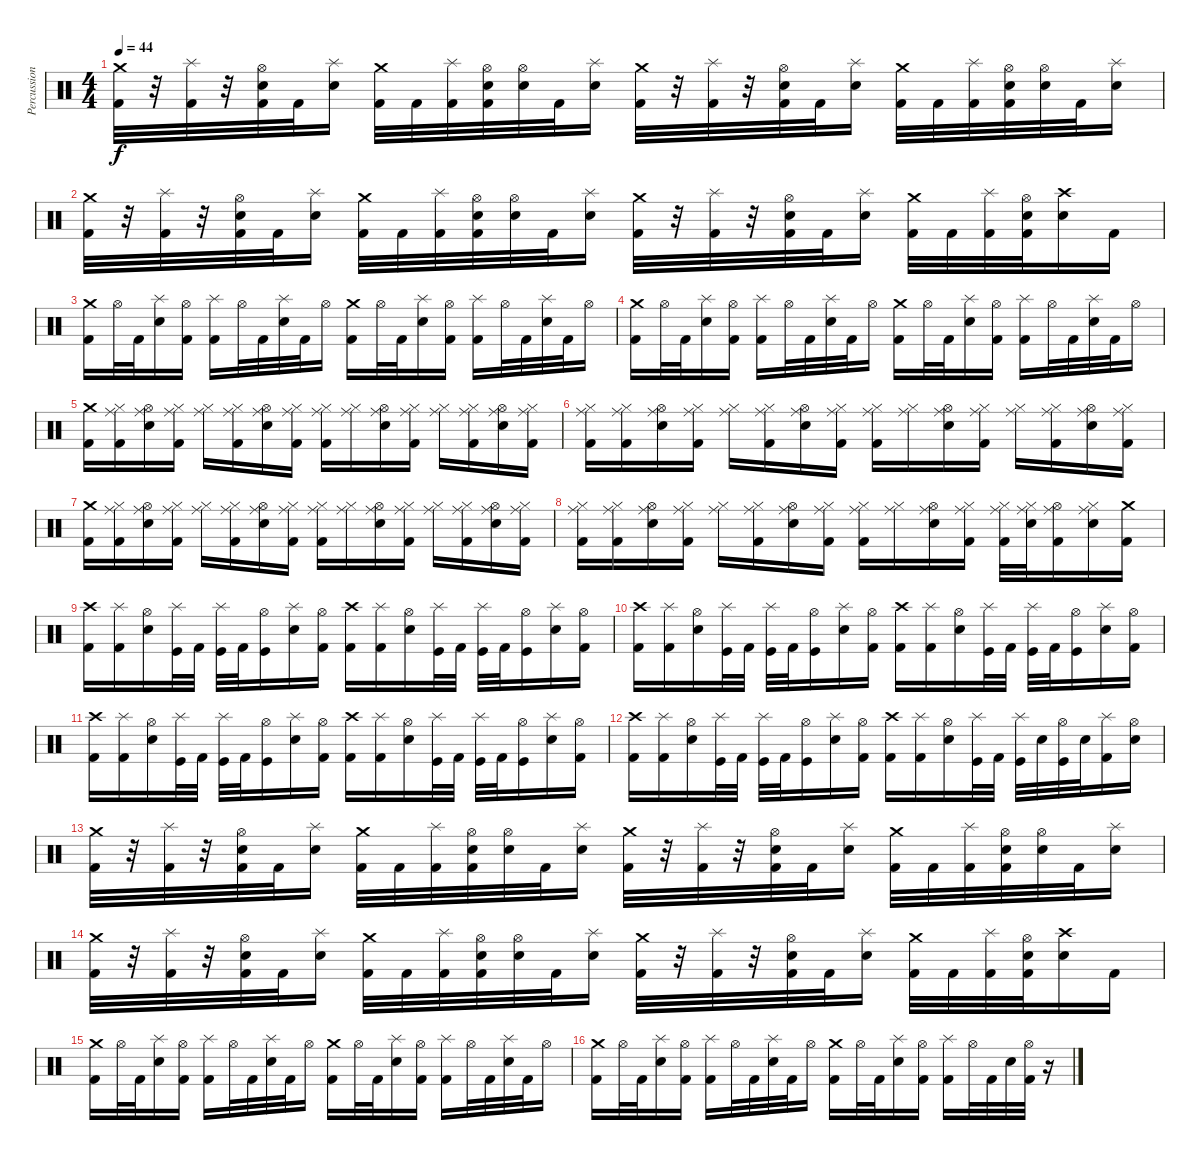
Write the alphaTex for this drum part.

\track ("Percussion" "Percussion") {instrument percussion}
\staff {score}
\articulation defaults
\ts (4 4)
\tempo 44
\clef neutral
\ks c
("Crash medium (hit)" "Kick (hit) 2").32{dy f} r.32 ("Splash (hit)" "Kick (hit) 2").32 r.32 ("Hi-Hat (open)" "Electric Snare (hit)" "Kick (hit) 2").32 "Kick (hit) 2".32 ("Splash (hit)" "Electric Snare (hit)").16 ("Crash medium (hit)" "Kick (hit) 2").32 "Kick (hit) 2".32 ("Splash (hit)" "Kick (hit) 2").32 ("Hi-Hat (open)" "Electric Snare (hit)" "Kick (hit) 2").32 ("Hi-Hat (open)" "Electric Snare (hit)").32 "Kick (hit) 2".32 ("Splash (hit)" "Electric Snare (hit)").16 ("Crash medium (hit)" "Kick (hit) 2").32 r.32 ("Splash (hit)" "Kick (hit) 2").32 r.32 ("Hi-Hat (open)" "Electric Snare (hit)" "Kick (hit) 2").32 "Kick (hit) 2".32 ("Splash (hit)" "Electric Snare (hit)").16 ("Crash medium (hit)" "Kick (hit) 2").32 "Kick (hit) 2".32 ("Splash (hit)" "Kick (hit) 2").32 ("Hi-Hat (open)" "Electric Snare (hit)" "Kick (hit) 2").32 ("Hi-Hat (open)" "Electric Snare (hit)").32 "Kick (hit) 2".32 ("Splash (hit)" "Electric Snare (hit)").16 |
("Crash medium (hit)" "Kick (hit) 2").32 r.32 ("Splash (hit)" "Kick (hit) 2").32 r.32 ("Hi-Hat (open)" "Electric Snare (hit)" "Kick (hit) 2").32 "Kick (hit) 2".32 ("Splash (hit)" "Electric Snare (hit)").16 ("Crash medium (hit)" "Kick (hit) 2").32 "Kick (hit) 2".32 ("Splash (hit)" "Kick (hit) 2").32 ("Hi-Hat (open)" "Electric Snare (hit)" "Kick (hit) 2").32 ("Hi-Hat (open)" "Electric Snare (hit)").32 "Kick (hit) 2".32 ("Splash (hit)" "Electric Snare (hit)").16 ("Crash medium (hit)" "Kick (hit) 2").32 r.32 ("Splash (hit)" "Kick (hit) 2").32 r.32 ("Hi-Hat (open)" "Electric Snare (hit)" "Kick (hit) 2").32 "Kick (hit) 2".32 ("Splash (hit)" "Electric Snare (hit)").16 ("Crash medium (hit)" "Kick (hit) 2").32 "Kick (hit) 2".32 ("Splash (hit)" "Kick (hit) 2").32 ("Hi-Hat (open)" "Electric Snare (hit)" "Kick (hit) 2").32 ("Crash high (hit)" "Electric Snare (hit)").16 "Kick (hit) 2".16 |
("Crash medium (hit)" "Kick (hit) 2").16 "Hi-Hat (open)".32 "Kick (hit) 2".32 ("Splash (hit)" "Electric Snare (hit)").16 ("Hi-Hat (open)" "Kick (hit) 2").16 ("Splash (hit)" "Kick (hit) 2").16 "Hi-Hat (open)".32 "Kick (hit) 2".32 ("Splash (hit)" "Electric Snare (hit)").32 "Kick (hit) 2".32 "Hi-Hat (open)".16 ("Crash medium (hit)" "Kick (hit) 2").16 "Hi-Hat (open)".32 "Kick (hit) 2".32 ("Splash (hit)" "Electric Snare (hit)").16 ("Hi-Hat (open)" "Kick (hit) 2").16 ("Splash (hit)" "Kick (hit) 2").16 "Hi-Hat (open)".32 "Kick (hit) 2".32 ("Splash (hit)" "Electric Snare (hit)").32 "Kick (hit) 2".32 "Hi-Hat (open)".16 |
("Crash medium (hit)" "Kick (hit) 2").16 "Hi-Hat (open)".32 "Kick (hit) 2".32 ("Splash (hit)" "Electric Snare (hit)").16 ("Hi-Hat (open)" "Kick (hit) 2").16 ("Splash (hit)" "Kick (hit) 2").16 "Hi-Hat (open)".32 "Kick (hit) 2".32 ("Splash (hit)" "Electric Snare (hit)").32 "Kick (hit) 2".32 "Hi-Hat (open)".16 ("Crash medium (hit)" "Kick (hit) 2").16 "Hi-Hat (open)".32 "Kick (hit) 2".32 ("Splash (hit)" "Electric Snare (hit)").16 ("Hi-Hat (open)" "Kick (hit) 2").16 ("Splash (hit)" "Kick (hit) 2").16 "Hi-Hat (open)".32 "Kick (hit) 2".32 ("Splash (hit)" "Electric Snare (hit)").32 "Kick (hit) 2".32 "Hi-Hat (open)".16 |
("Crash medium (hit)" "Kick (hit) 2").16 ("Hi-Hat (closed)" "Ride (middle)" "Kick (hit) 2").16 ("Hi-Hat (open)" "Ride (middle)" "Electric Snare (hit)").16 ("Hi-Hat (closed)" "Ride (middle)" "Kick (hit) 2").16 ("Hi-Hat (closed)" "Ride (middle)").16 ("Hi-Hat (closed)" "Ride (middle)" "Kick (hit) 2").16 ("Hi-Hat (open)" "Ride (middle)" "Electric Snare (hit)").16 ("Hi-Hat (closed)" "Ride (middle)" "Kick (hit) 2").16 ("Hi-Hat (closed)" "Ride (middle)" "Kick (hit) 2").16 ("Hi-Hat (closed)" "Ride (middle)").16 ("Hi-Hat (open)" "Ride (middle)" "Electric Snare (hit)").16 ("Hi-Hat (closed)" "Ride (middle)" "Kick (hit) 2").16 ("Hi-Hat (closed)" "Ride (middle)").16 ("Hi-Hat (closed)" "Ride (middle)" "Kick (hit) 2").16 ("Hi-Hat (open)" "Ride (middle)" "Electric Snare (hit)").16 ("Hi-Hat (closed)" "Ride (middle)" "Kick (hit) 2").16 |
("Hi-Hat (closed)" "Ride (middle)" "Kick (hit) 2").16 ("Hi-Hat (closed)" "Ride (middle)" "Kick (hit) 2").16 ("Hi-Hat (open)" "Ride (middle)" "Electric Snare (hit)").16 ("Hi-Hat (closed)" "Ride (middle)" "Kick (hit) 2").16 ("Hi-Hat (closed)" "Ride (middle)").16 ("Hi-Hat (closed)" "Ride (middle)" "Kick (hit) 2").16 ("Hi-Hat (open)" "Ride (middle)" "Electric Snare (hit)").16 ("Hi-Hat (closed)" "Ride (middle)" "Kick (hit) 2").16 ("Hi-Hat (closed)" "Ride (middle)" "Kick (hit) 2").16 ("Hi-Hat (closed)" "Ride (middle)").16 ("Hi-Hat (open)" "Ride (middle)" "Electric Snare (hit)").16 ("Hi-Hat (closed)" "Ride (middle)" "Kick (hit) 2").16 ("Hi-Hat (closed)" "Ride (middle)").16 ("Hi-Hat (closed)" "Ride (middle)" "Kick (hit) 2").16 ("Hi-Hat (open)" "Ride (middle)" "Electric Snare (hit)").16 ("Hi-Hat (closed)" "Ride (middle)" "Kick (hit) 2").16 |
("Crash medium (hit)" "Kick (hit) 2").16 ("Hi-Hat (closed)" "Ride (middle)" "Kick (hit) 2").16 ("Hi-Hat (open)" "Ride (middle)" "Electric Snare (hit)").16 ("Hi-Hat (closed)" "Ride (middle)" "Kick (hit) 2").16 ("Hi-Hat (closed)" "Ride (middle)").16 ("Hi-Hat (closed)" "Ride (middle)" "Kick (hit) 2").16 ("Hi-Hat (open)" "Ride (middle)" "Electric Snare (hit)").16 ("Hi-Hat (closed)" "Ride (middle)" "Kick (hit) 2").16 ("Hi-Hat (closed)" "Ride (middle)" "Kick (hit) 2").16 ("Hi-Hat (closed)" "Ride (middle)").16 ("Hi-Hat (open)" "Ride (middle)" "Electric Snare (hit)").16 ("Hi-Hat (closed)" "Ride (middle)" "Kick (hit) 2").16 ("Hi-Hat (closed)" "Ride (middle)").16 ("Hi-Hat (closed)" "Ride (middle)" "Kick (hit) 2").16 ("Hi-Hat (open)" "Ride (middle)" "Electric Snare (hit)").16 ("Hi-Hat (closed)" "Ride (middle)" "Kick (hit) 2").16 |
("Hi-Hat (closed)" "Ride (middle)" "Kick (hit) 2").16 ("Hi-Hat (closed)" "Ride (middle)" "Kick (hit) 2").16 ("Hi-Hat (open)" "Ride (middle)" "Electric Snare (hit)").16 ("Hi-Hat (closed)" "Ride (middle)" "Kick (hit) 2").16 ("Hi-Hat (closed)" "Ride (middle)").16 ("Hi-Hat (closed)" "Ride (middle)" "Kick (hit) 2").16 ("Hi-Hat (open)" "Ride (middle)" "Electric Snare (hit)").16 ("Hi-Hat (closed)" "Ride (middle)" "Kick (hit) 2").16 ("Hi-Hat (closed)" "Ride (middle)" "Kick (hit) 2").16 ("Hi-Hat (closed)" "Ride (middle)").16 ("Hi-Hat (open)" "Ride (middle)" "Electric Snare (hit)").16 ("Hi-Hat (closed)" "Ride (middle)" "Kick (hit) 2").16 ("Hi-Hat (closed)" "Ride (middle)" "Kick (hit) 2").32 ("Hi-Hat (closed)" "Ride (middle)" "Electric Snare (hit)").32 ("Hi-Hat (open)" "Ride (middle)" "Kick (hit) 2").16 ("Hi-Hat (closed)" "Ride (middle)" "Electric Snare (hit)").16 ("Crash medium (hit)" "Kick (hit) 2").16 |
("Crash high (hit)" "Kick (hit) 2").16 ("Splash (hit)" "Kick (hit) 2").16 ("Hi-Hat (open)" "Electric Snare (hit)").16 ("Splash (hit)" "Kick (hit)").32 "Kick (hit) 2".32 ("Splash (hit)" "Kick (hit)").32 "Kick (hit) 2".32 ("Hi-Hat (open)" "Kick (hit)").16 ("Splash (hit)" "Electric Snare (hit)").16 ("Hi-Hat (open)" "Kick (hit) 2").16 ("Crash high (hit)" "Kick (hit) 2").16 ("Splash (hit)" "Kick (hit) 2").16 ("Hi-Hat (open)" "Electric Snare (hit)").16 ("Splash (hit)" "Kick (hit)").32 "Kick (hit) 2".32 ("Splash (hit)" "Kick (hit)").32 "Kick (hit) 2".32 ("Hi-Hat (open)" "Kick (hit)").16 ("Splash (hit)" "Electric Snare (hit)").16 ("Hi-Hat (open)" "Kick (hit) 2").16 |
("Crash high (hit)" "Kick (hit) 2").16 ("Splash (hit)" "Kick (hit) 2").16 ("Hi-Hat (open)" "Electric Snare (hit)").16 ("Splash (hit)" "Kick (hit)").32 "Kick (hit) 2".32 ("Splash (hit)" "Kick (hit)").32 "Kick (hit) 2".32 ("Hi-Hat (open)" "Kick (hit)").16 ("Splash (hit)" "Electric Snare (hit)").16 ("Hi-Hat (open)" "Kick (hit) 2").16 ("Crash high (hit)" "Kick (hit) 2").16 ("Splash (hit)" "Kick (hit) 2").16 ("Hi-Hat (open)" "Electric Snare (hit)").16 ("Splash (hit)" "Kick (hit)").32 "Kick (hit) 2".32 ("Splash (hit)" "Kick (hit)").32 "Kick (hit) 2".32 ("Hi-Hat (open)" "Kick (hit)").16 ("Splash (hit)" "Electric Snare (hit)").16 ("Hi-Hat (open)" "Kick (hit) 2").16 |
("Crash high (hit)" "Kick (hit) 2").16 ("Splash (hit)" "Kick (hit) 2").16 ("Hi-Hat (open)" "Electric Snare (hit)").16 ("Splash (hit)" "Kick (hit)").32 "Kick (hit) 2".32 ("Splash (hit)" "Kick (hit)").32 "Kick (hit) 2".32 ("Hi-Hat (open)" "Kick (hit)").16 ("Splash (hit)" "Electric Snare (hit)").16 ("Hi-Hat (open)" "Kick (hit) 2").16 ("Crash high (hit)" "Kick (hit) 2").16 ("Splash (hit)" "Kick (hit) 2").16 ("Hi-Hat (open)" "Electric Snare (hit)").16 ("Splash (hit)" "Kick (hit)").32 "Kick (hit) 2".32 ("Splash (hit)" "Kick (hit)").32 "Kick (hit) 2".32 ("Hi-Hat (open)" "Kick (hit)").16 ("Splash (hit)" "Electric Snare (hit)").16 ("Hi-Hat (open)" "Kick (hit) 2").16 |
("Crash high (hit)" "Kick (hit) 2").16 ("Splash (hit)" "Kick (hit) 2").16 ("Hi-Hat (open)" "Electric Snare (hit)").16 ("Splash (hit)" "Kick (hit)").32 "Kick (hit) 2".32 ("Splash (hit)" "Kick (hit)").32 "Kick (hit) 2".32 ("Hi-Hat (open)" "Kick (hit)").16 ("Splash (hit)" "Electric Snare (hit)").16 ("Hi-Hat (open)" "Kick (hit) 2").16 ("Crash high (hit)" "Kick (hit) 2").16 ("Splash (hit)" "Kick (hit) 2").16 ("Hi-Hat (open)" "Electric Snare (hit)").16 ("Splash (hit)" "Kick (hit)").32 "Kick (hit) 2".32 ("Splash (hit)" "Kick (hit)").32 "Electric Snare (hit)".32 ("Hi-Hat (open)" "Kick (hit)").32 "Electric Snare (hit)".32 ("Splash (hit)" "Kick (hit) 2").16 ("Hi-Hat (open)" "Electric Snare (hit)").16 |
("Crash medium (hit)" "Kick (hit) 2").32 r.32 ("Splash (hit)" "Kick (hit) 2").32 r.32 ("Hi-Hat (open)" "Electric Snare (hit)" "Kick (hit) 2").32 "Kick (hit) 2".32 ("Splash (hit)" "Electric Snare (hit)").16 ("Crash medium (hit)" "Kick (hit) 2").32 "Kick (hit) 2".32 ("Splash (hit)" "Kick (hit) 2").32 ("Hi-Hat (open)" "Electric Snare (hit)" "Kick (hit) 2").32 ("Hi-Hat (open)" "Electric Snare (hit)").32 "Kick (hit) 2".32 ("Splash (hit)" "Electric Snare (hit)").16 ("Crash medium (hit)" "Kick (hit) 2").32 r.32 ("Splash (hit)" "Kick (hit) 2").32 r.32 ("Hi-Hat (open)" "Electric Snare (hit)" "Kick (hit) 2").32 "Kick (hit) 2".32 ("Splash (hit)" "Electric Snare (hit)").16 ("Crash medium (hit)" "Kick (hit) 2").32 "Kick (hit) 2".32 ("Splash (hit)" "Kick (hit) 2").32 ("Hi-Hat (open)" "Electric Snare (hit)" "Kick (hit) 2").32 ("Hi-Hat (open)" "Electric Snare (hit)").32 "Kick (hit) 2".32 ("Splash (hit)" "Electric Snare (hit)").16 |
("Crash medium (hit)" "Kick (hit) 2").32 r.32 ("Splash (hit)" "Kick (hit) 2").32 r.32 ("Hi-Hat (open)" "Electric Snare (hit)" "Kick (hit) 2").32 "Kick (hit) 2".32 ("Splash (hit)" "Electric Snare (hit)").16 ("Crash medium (hit)" "Kick (hit) 2").32 "Kick (hit) 2".32 ("Splash (hit)" "Kick (hit) 2").32 ("Hi-Hat (open)" "Electric Snare (hit)" "Kick (hit) 2").32 ("Hi-Hat (open)" "Electric Snare (hit)").32 "Kick (hit) 2".32 ("Splash (hit)" "Electric Snare (hit)").16 ("Crash medium (hit)" "Kick (hit) 2").32 r.32 ("Splash (hit)" "Kick (hit) 2").32 r.32 ("Hi-Hat (open)" "Electric Snare (hit)" "Kick (hit) 2").32 "Kick (hit) 2".32 ("Splash (hit)" "Electric Snare (hit)").16 ("Crash medium (hit)" "Kick (hit) 2").32 "Kick (hit) 2".32 ("Splash (hit)" "Kick (hit) 2").32 ("Hi-Hat (open)" "Electric Snare (hit)" "Kick (hit) 2").32 ("Crash high (hit)" "Electric Snare (hit)").16 "Kick (hit) 2".16 |
("Crash medium (hit)" "Kick (hit) 2").16 "Hi-Hat (open)".32 "Kick (hit) 2".32 ("Splash (hit)" "Electric Snare (hit)").16 ("Hi-Hat (open)" "Kick (hit) 2").16 ("Splash (hit)" "Kick (hit) 2").16 "Hi-Hat (open)".32 "Kick (hit) 2".32 ("Splash (hit)" "Electric Snare (hit)").32 "Kick (hit) 2".32 "Hi-Hat (open)".16 ("Crash medium (hit)" "Kick (hit) 2").16 "Hi-Hat (open)".32 "Kick (hit) 2".32 ("Splash (hit)" "Electric Snare (hit)").16 ("Hi-Hat (open)" "Kick (hit) 2").16 ("Splash (hit)" "Kick (hit) 2").16 "Hi-Hat (open)".32 "Kick (hit) 2".32 ("Splash (hit)" "Electric Snare (hit)").32 "Kick (hit) 2".32 "Hi-Hat (open)".16 |
("Crash medium (hit)" "Kick (hit) 2").16 "Hi-Hat (open)".32 "Kick (hit) 2".32 ("Splash (hit)" "Electric Snare (hit)").16 ("Hi-Hat (open)" "Kick (hit) 2").16 ("Splash (hit)" "Kick (hit) 2").16 "Hi-Hat (open)".32 "Kick (hit) 2".32 ("Splash (hit)" "Electric Snare (hit)").32 "Kick (hit) 2".32 "Hi-Hat (open)".16 ("Crash medium (hit)" "Kick (hit) 2").16 "Hi-Hat (open)".32 "Kick (hit) 2".32 ("Splash (hit)" "Electric Snare (hit)").16 ("Hi-Hat (open)" "Kick (hit) 2").16 ("Splash (hit)" "Kick (hit) 2").16 "Hi-Hat (open)".32 "Kick (hit) 2".32 "Electric Snare (hit)".32 ("Hi-Hat (open)" "Kick (hit) 2").32 r.16
